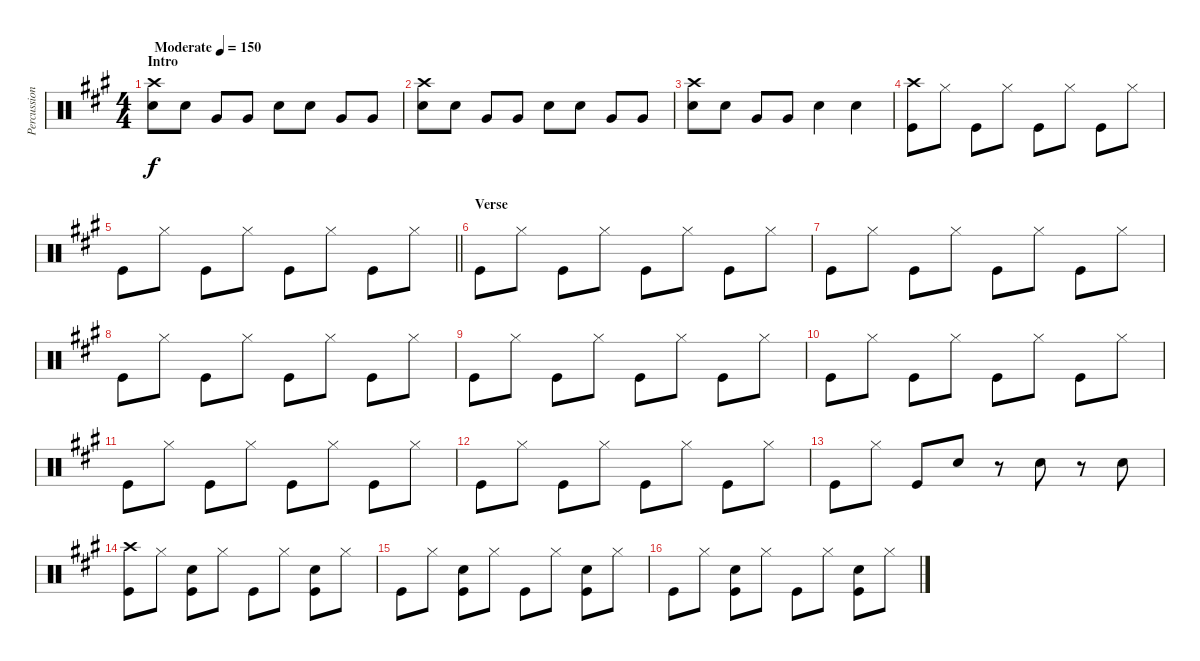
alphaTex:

\track ("Percussion" "Percussion") {instrument percussion}
\staff {score}
\articulation defaults
\ts (4 4)
\section ("" "Intro")
\tempo (150 "Moderate")
\clef neutral
\ks a
("Snare (hit) 2" "Crash high (hit)").8{dy f} "Snare (hit) 2".8 "Very Low Tom (hit)".8 "Very Low Tom (hit)".8 "Snare (hit) 2".8 "Snare (hit) 2".8 "Very Low Tom (hit)".8 "Very Low Tom (hit)".8 |
("Snare (hit) 2" "Crash high (hit)").8 "Snare (hit) 2".8 "Very Low Tom (hit)".8 "Very Low Tom (hit)".8 "Snare (hit) 2".8 "Snare (hit) 2".8 "Very Low Tom (hit)".8 "Very Low Tom (hit)".8 |
("Snare (hit) 2" "Crash high (hit)").8 "Snare (hit) 2".8 "Very Low Tom (hit)".8 "Very Low Tom (hit)".8 "Snare (hit) 2".4 "Snare (hit) 2".4 |
("Crash high (hit)" "Kick (hit)").8 "Hi-Hat (closed)".8 "Kick (hit)".8 "Hi-Hat (closed)".8 "Kick (hit)".8 "Hi-Hat (closed)".8 "Kick (hit)".8 "Hi-Hat (closed)".8 |
\barLineRight lightlight "Kick (hit)".8 "Hi-Hat (closed)".8 "Kick (hit)".8 "Hi-Hat (closed)".8 "Kick (hit)".8 "Hi-Hat (closed)".8 "Kick (hit)".8 "Hi-Hat (closed)".8
|
\section ("" "Verse")
"Kick (hit)".8 "Hi-Hat (closed)".8 "Kick (hit)".8 "Hi-Hat (closed)".8 "Kick (hit)".8 "Hi-Hat (closed)".8 "Kick (hit)".8 "Hi-Hat (closed)".8 |
"Kick (hit)".8 "Hi-Hat (closed)".8 "Kick (hit)".8 "Hi-Hat (closed)".8 "Kick (hit)".8 "Hi-Hat (closed)".8 "Kick (hit)".8 "Hi-Hat (closed)".8 |
"Kick (hit)".8 "Hi-Hat (closed)".8 "Kick (hit)".8 "Hi-Hat (closed)".8 "Kick (hit)".8 "Hi-Hat (closed)".8 "Kick (hit)".8 "Hi-Hat (closed)".8 |
"Kick (hit)".8 "Hi-Hat (closed)".8 "Kick (hit)".8 "Hi-Hat (closed)".8 "Kick (hit)".8 "Hi-Hat (closed)".8 "Kick (hit)".8 "Hi-Hat (closed)".8 |
"Kick (hit)".8 "Hi-Hat (closed)".8 "Kick (hit)".8 "Hi-Hat (closed)".8 "Kick (hit)".8 "Hi-Hat (closed)".8 "Kick (hit)".8 "Hi-Hat (closed)".8 |
"Kick (hit)".8 "Hi-Hat (closed)".8 "Kick (hit)".8 "Hi-Hat (closed)".8 "Kick (hit)".8 "Hi-Hat (closed)".8 "Kick (hit)".8 "Hi-Hat (closed)".8 |
"Kick (hit)".8 "Hi-Hat (closed)".8 "Kick (hit)".8 "Hi-Hat (closed)".8 "Kick (hit)".8 "Hi-Hat (closed)".8 "Kick (hit)".8 "Hi-Hat (closed)".8 |
"Kick (hit)".8 "Hi-Hat (closed)".8 "Kick (hit)".8 "Snare (hit) 2".8 r.8 "Snare (hit) 2".8 r.8 "Snare (hit) 2".8 |
("Kick (hit)" "Crash high (hit)").8 "Hi-Hat (closed)".8 ("Kick (hit)" "Snare (hit) 2").8 "Hi-Hat (closed)".8 "Kick (hit)".8 "Hi-Hat (closed)".8 ("Snare (hit) 2" "Kick (hit)").8 "Hi-Hat (closed)".8 |
"Kick (hit)".8 "Hi-Hat (closed)".8 ("Kick (hit)" "Snare (hit) 2").8 "Hi-Hat (closed)".8 "Kick (hit)".8 "Hi-Hat (closed)".8 ("Kick (hit)" "Snare (hit) 2").8 "Hi-Hat (closed)".8 |
"Kick (hit)".8 "Hi-Hat (closed)".8 ("Kick (hit)" "Snare (hit) 2").8 "Hi-Hat (closed)".8 "Kick (hit)".8 "Hi-Hat (closed)".8 ("Kick (hit)" "Snare (hit) 2").8 "Hi-Hat (closed)".8
